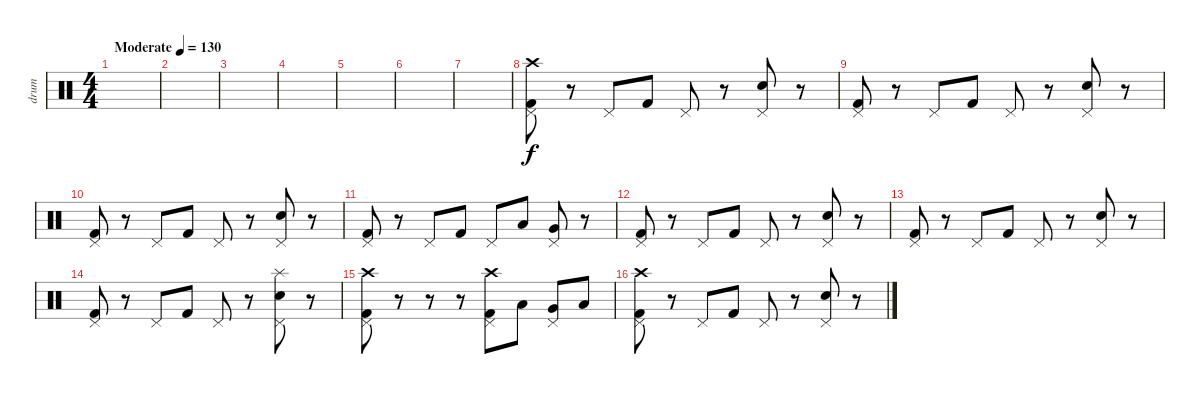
\track ("drum" "drum") {instrument percussion}
\staff {score}
\articulation defaults
\ts (4 4)
\tempo (130 "Moderate")
\clef neutral
\ks c
|
|
|
|
|
|
|
("Crash high (hit)" "Pedal Hi-Hat (hit)" "Kick (hit) 2").8 r.8 "Pedal Hi-Hat (hit)".8 "Kick (hit) 2".8 "Pedal Hi-Hat (hit)".8 r.8 ("Pedal Hi-Hat (hit)" "Electric Snare (hit)").8 r.8 |
("Pedal Hi-Hat (hit)" "Kick (hit) 2").8 r.8 "Pedal Hi-Hat (hit)".8 "Kick (hit) 2".8 "Pedal Hi-Hat (hit)".8 r.8 ("Pedal Hi-Hat (hit)" "Electric Snare (hit)").8 r.8 |
("Pedal Hi-Hat (hit)" "Kick (hit) 2").8 r.8 "Pedal Hi-Hat (hit)".8 "Kick (hit) 2".8 "Pedal Hi-Hat (hit)".8 r.8 ("Pedal Hi-Hat (hit)" "Electric Snare (hit)").8 r.8 |
("Pedal Hi-Hat (hit)" "Kick (hit) 2").8 r.8 "Pedal Hi-Hat (hit)".8 "Kick (hit) 2".8 "Pedal Hi-Hat (hit)".8 "Low Tom (hit)".8 ("Pedal Hi-Hat (hit)" "Very Low Tom (hit)").8 r.8 |
("Pedal Hi-Hat (hit)" "Kick (hit) 2").8 r.8 "Pedal Hi-Hat (hit)".8 "Kick (hit) 2".8 "Pedal Hi-Hat (hit)".8 r.8 ("Pedal Hi-Hat (hit)" "Electric Snare (hit)").8 r.8 |
("Pedal Hi-Hat (hit)" "Kick (hit) 2").8 r.8 "Pedal Hi-Hat (hit)".8 "Kick (hit) 2".8 "Pedal Hi-Hat (hit)".8 r.8 ("Pedal Hi-Hat (hit)" "Electric Snare (hit)").8 r.8 |
("Pedal Hi-Hat (hit)" "Kick (hit) 2").8 r.8 "Pedal Hi-Hat (hit)".8 "Kick (hit) 2".8 "Pedal Hi-Hat (hit)".8 r.8 ("Splash (hit)" "Pedal Hi-Hat (hit)" "Electric Snare (hit)").8 r.8 |
("Crash high (hit)" "Pedal Hi-Hat (hit)" "Kick (hit) 2").8 r.8 r.8 r.8 ("Crash high (hit)" "Pedal Hi-Hat (hit)" "Kick (hit) 2").8 "Low Tom (hit)".8 ("Pedal Hi-Hat (hit)" "Very Low Tom (hit)").8 "Low Floor Tom (hit)".8 |
("Crash high (hit)" "Pedal Hi-Hat (hit)" "Kick (hit) 2").8 r.8 "Pedal Hi-Hat (hit)".8 "Kick (hit) 2".8 "Pedal Hi-Hat (hit)".8 r.8 ("Pedal Hi-Hat (hit)" "Electric Snare (hit)").8 r.8
